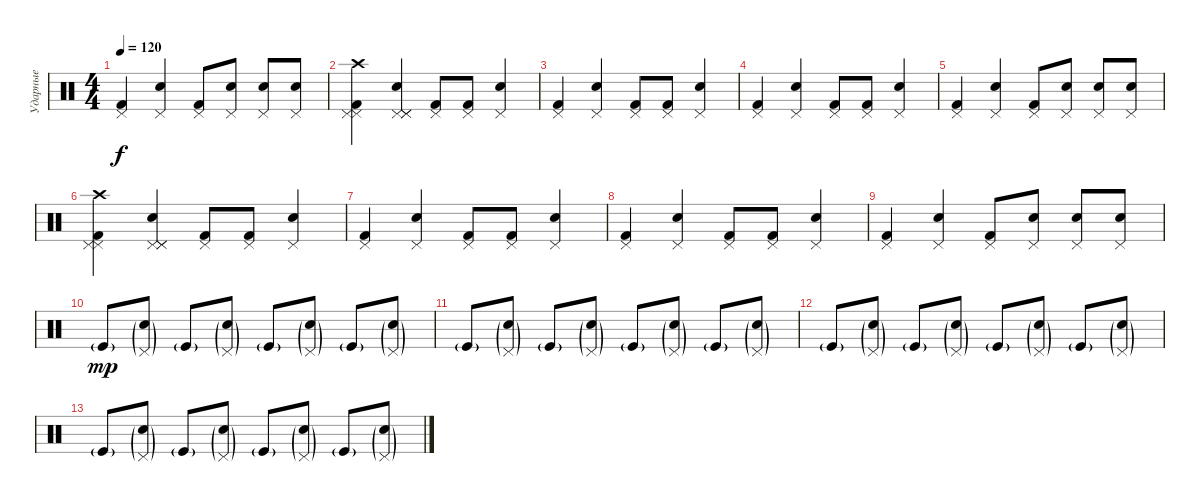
\track ("Ударные" "Ударные") {instrument percussion}
\staff {score}
\articulation defaults
\ts (4 4)
\tempo 120
\clef neutral
\ks c
("Kick (hit) 2" "Pedal Hi-Hat (hit)").4{dy f} ("Electric Snare (hit)" "Pedal Hi-Hat (hit)").4 ("Kick (hit) 2" "Pedal Hi-Hat (hit)").8 ("Electric Snare (hit)" "Pedal Hi-Hat (hit)").8 ("Electric Snare (hit)" "Pedal Hi-Hat (hit)").8 ("Electric Snare (hit)" "Pedal Hi-Hat (hit)").8 |
("Kick (hit) 2" "Pedal Hi-Hat (hit)" "Crash high (hit)" "Pedal Hi-Hat (hit)").4 ("Electric Snare (hit)" "Pedal Hi-Hat (hit)" "Pedal Hi-Hat (hit)" "Pedal Hi-Hat (hit)").4 ("Kick (hit) 2" "Pedal Hi-Hat (hit)").8 ("Kick (hit) 2" "Pedal Hi-Hat (hit)").8 ("Electric Snare (hit)" "Pedal Hi-Hat (hit)").4 |
("Kick (hit) 2" "Pedal Hi-Hat (hit)").4 ("Electric Snare (hit)" "Pedal Hi-Hat (hit)").4 ("Kick (hit) 2" "Pedal Hi-Hat (hit)").8 ("Kick (hit) 2" "Pedal Hi-Hat (hit)").8 ("Electric Snare (hit)" "Pedal Hi-Hat (hit)").4 |
("Kick (hit) 2" "Pedal Hi-Hat (hit)").4 ("Electric Snare (hit)" "Pedal Hi-Hat (hit)").4 ("Kick (hit) 2" "Pedal Hi-Hat (hit)").8 ("Kick (hit) 2" "Pedal Hi-Hat (hit)").8 ("Electric Snare (hit)" "Pedal Hi-Hat (hit)").4 |
("Kick (hit) 2" "Pedal Hi-Hat (hit)").4 ("Electric Snare (hit)" "Pedal Hi-Hat (hit)").4 ("Kick (hit) 2" "Pedal Hi-Hat (hit)").8 ("Electric Snare (hit)" "Pedal Hi-Hat (hit)").8 ("Electric Snare (hit)" "Pedal Hi-Hat (hit)").8 ("Electric Snare (hit)" "Pedal Hi-Hat (hit)").8 |
("Kick (hit) 2" "Pedal Hi-Hat (hit)" "Crash high (hit)" "Pedal Hi-Hat (hit)").4 ("Electric Snare (hit)" "Pedal Hi-Hat (hit)" "Pedal Hi-Hat (hit)" "Pedal Hi-Hat (hit)").4 ("Kick (hit) 2" "Pedal Hi-Hat (hit)").8 ("Kick (hit) 2" "Pedal Hi-Hat (hit)").8 ("Electric Snare (hit)" "Pedal Hi-Hat (hit)").4 |
("Kick (hit) 2" "Pedal Hi-Hat (hit)").4 ("Electric Snare (hit)" "Pedal Hi-Hat (hit)").4 ("Kick (hit) 2" "Pedal Hi-Hat (hit)").8 ("Kick (hit) 2" "Pedal Hi-Hat (hit)").8 ("Electric Snare (hit)" "Pedal Hi-Hat (hit)").4 |
("Kick (hit) 2" "Pedal Hi-Hat (hit)").4 ("Electric Snare (hit)" "Pedal Hi-Hat (hit)").4 ("Kick (hit) 2" "Pedal Hi-Hat (hit)").8 ("Kick (hit) 2" "Pedal Hi-Hat (hit)").8 ("Electric Snare (hit)" "Pedal Hi-Hat (hit)").4 |
("Kick (hit) 2" "Pedal Hi-Hat (hit)").4 ("Electric Snare (hit)" "Pedal Hi-Hat (hit)").4 ("Kick (hit) 2" "Pedal Hi-Hat (hit)").8 ("Electric Snare (hit)" "Pedal Hi-Hat (hit)").8 ("Electric Snare (hit)" "Pedal Hi-Hat (hit)").8 ("Electric Snare (hit)" "Pedal Hi-Hat (hit)").8 |
"Kick (hit)"{g}.8{dy mp} ("Pedal Hi-Hat (hit)"{g} "Snare (hit) 2"{g}).8 "Kick (hit)"{g}.8 ("Pedal Hi-Hat (hit)"{g} "Snare (hit) 2"{g}).8 "Kick (hit)"{g}.8 ("Pedal Hi-Hat (hit)"{g} "Snare (hit) 2"{g}).8 "Kick (hit)"{g}.8 ("Pedal Hi-Hat (hit)"{g} "Snare (hit) 2"{g}).8 |
"Kick (hit)"{g}.8 ("Pedal Hi-Hat (hit)"{g} "Snare (hit) 2"{g}).8 "Kick (hit)"{g}.8 ("Pedal Hi-Hat (hit)"{g} "Snare (hit) 2"{g}).8 "Kick (hit)"{g}.8 ("Pedal Hi-Hat (hit)"{g} "Snare (hit) 2"{g}).8 "Kick (hit)"{g}.8 ("Pedal Hi-Hat (hit)"{g} "Snare (hit) 2"{g}).8 |
"Kick (hit)"{g}.8 ("Pedal Hi-Hat (hit)"{g} "Snare (hit) 2"{g}).8 "Kick (hit)"{g}.8 ("Pedal Hi-Hat (hit)"{g} "Snare (hit) 2"{g}).8 "Kick (hit)"{g}.8 ("Pedal Hi-Hat (hit)"{g} "Snare (hit) 2"{g}).8 "Kick (hit)"{g}.8 ("Pedal Hi-Hat (hit)"{g} "Snare (hit) 2"{g}).8 |
"Kick (hit)"{g}.8 ("Pedal Hi-Hat (hit)"{g} "Snare (hit) 2"{g}).8 "Kick (hit)"{g}.8 ("Pedal Hi-Hat (hit)"{g} "Snare (hit) 2"{g}).8 "Kick (hit)"{g}.8 ("Pedal Hi-Hat (hit)"{g} "Snare (hit) 2"{g}).8 "Kick (hit)"{g}.8 ("Pedal Hi-Hat (hit)"{g} "Snare (hit) 2"{g}).8
